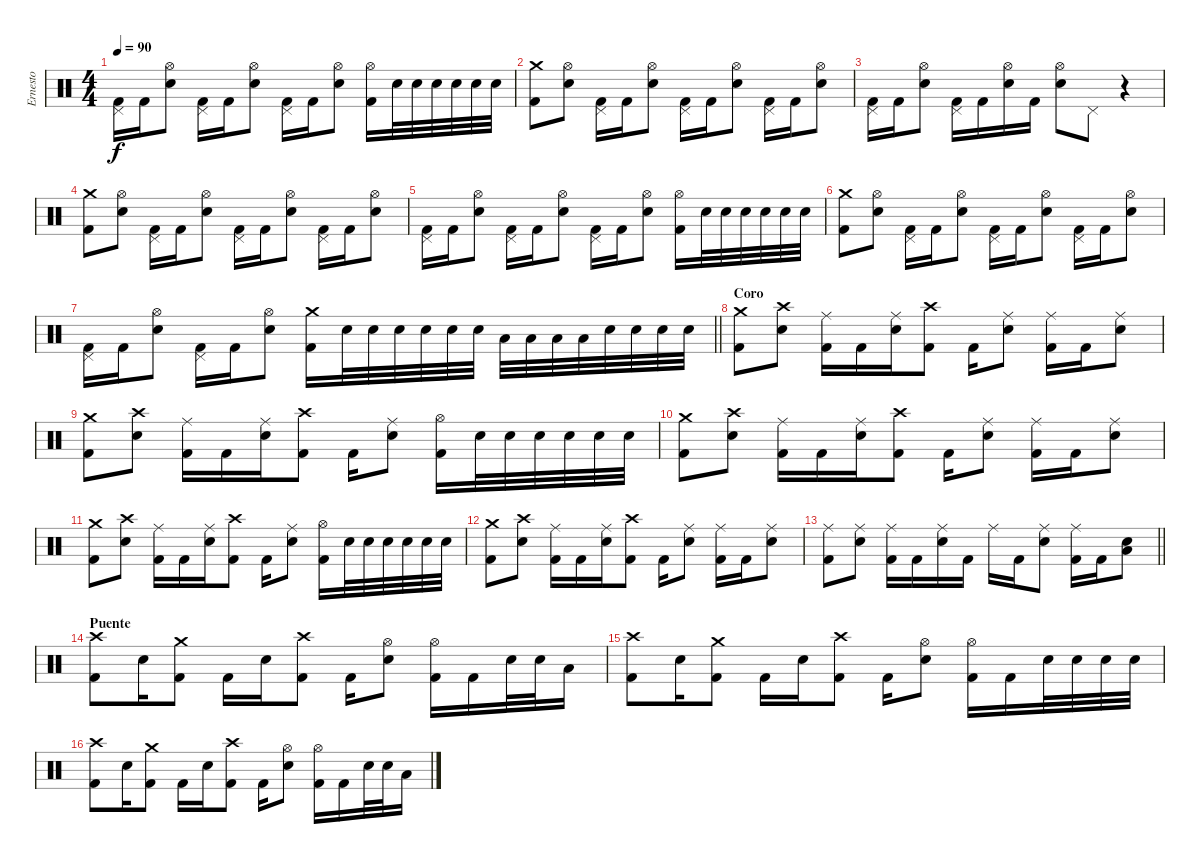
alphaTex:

\track ("Ernesto" "Ernesto") {instrument percussion}
\staff
\articulation defaults
\ts (4 4)
\tempo 90
\clef neutral
\ks c
("Pedal Hi-Hat (hit)" "Kick (hit) 2").16{dy f} "Kick (hit) 2".16 ("Hi-Hat (open)" "Electric Snare (hit)").8 ("Pedal Hi-Hat (hit)" "Kick (hit) 2").16 "Kick (hit) 2".16 ("Hi-Hat (open)" "Electric Snare (hit)").8 ("Pedal Hi-Hat (hit)" "Kick (hit) 2").16 "Kick (hit) 2".16 ("Hi-Hat (open)" "Electric Snare (hit)").8 ("Hi-Hat (open)" "Kick (hit) 2").16 "Electric Snare (hit)".32 "Electric Snare (hit)".32 "Electric Snare (hit)".32 "Electric Snare (hit)".32 "Electric Snare (hit)".32 "Electric Snare (hit)".32 |
("Crash medium (hit)" "Kick (hit) 2").8 ("Hi-Hat (open)" "Electric Snare (hit)").8 ("Pedal Hi-Hat (hit)" "Kick (hit) 2").16 "Kick (hit) 2".16 ("Hi-Hat (open)" "Electric Snare (hit)").8 ("Pedal Hi-Hat (hit)" "Kick (hit) 2").16 "Kick (hit) 2".16 ("Hi-Hat (open)" "Electric Snare (hit)").8 ("Pedal Hi-Hat (hit)" "Kick (hit) 2").16 "Kick (hit) 2".16 ("Hi-Hat (open)" "Electric Snare (hit)").8 |
("Pedal Hi-Hat (hit)" "Kick (hit) 2").16 "Kick (hit) 2".16 ("Hi-Hat (open)" "Electric Snare (hit)").8 ("Pedal Hi-Hat (hit)" "Kick (hit) 2").16 "Kick (hit) 2".16 ("Hi-Hat (open)" "Electric Snare (hit)").16 "Kick (hit) 2".16 ("Hi-Hat (open)" "Electric Snare (hit)").8 "Pedal Hi-Hat (hit)".8 r.4 |
("Crash medium (hit)" "Kick (hit) 2").8 ("Hi-Hat (open)" "Electric Snare (hit)").8 ("Pedal Hi-Hat (hit)" "Kick (hit) 2").16 "Kick (hit) 2".16 ("Hi-Hat (open)" "Electric Snare (hit)").8 ("Pedal Hi-Hat (hit)" "Kick (hit) 2").16 "Kick (hit) 2".16 ("Hi-Hat (open)" "Electric Snare (hit)").8 ("Pedal Hi-Hat (hit)" "Kick (hit) 2").16 "Kick (hit) 2".16 ("Hi-Hat (open)" "Electric Snare (hit)").8 |
("Pedal Hi-Hat (hit)" "Kick (hit) 2").16 "Kick (hit) 2".16 ("Hi-Hat (open)" "Electric Snare (hit)").8 ("Pedal Hi-Hat (hit)" "Kick (hit) 2").16 "Kick (hit) 2".16 ("Hi-Hat (open)" "Electric Snare (hit)").8 ("Pedal Hi-Hat (hit)" "Kick (hit) 2").16 "Kick (hit) 2".16 ("Hi-Hat (open)" "Electric Snare (hit)").8 ("Hi-Hat (open)" "Kick (hit) 2").16 "Electric Snare (hit)".32 "Electric Snare (hit)".32 "Electric Snare (hit)".32 "Electric Snare (hit)".32 "Electric Snare (hit)".32 "Electric Snare (hit)".32 |
("Crash medium (hit)" "Kick (hit) 2").8 ("Hi-Hat (open)" "Electric Snare (hit)").8 ("Pedal Hi-Hat (hit)" "Kick (hit) 2").16 "Kick (hit) 2".16 ("Hi-Hat (open)" "Electric Snare (hit)").8 ("Pedal Hi-Hat (hit)" "Kick (hit) 2").16 "Kick (hit) 2".16 ("Hi-Hat (open)" "Electric Snare (hit)").8 ("Pedal Hi-Hat (hit)" "Kick (hit) 2").16 "Kick (hit) 2".16 ("Hi-Hat (open)" "Electric Snare (hit)").8 |
\barLineRight lightlight
("Pedal Hi-Hat (hit)" "Kick (hit) 2").16 "Kick (hit) 2".16 ("Hi-Hat (open)" "Electric Snare (hit)").8 ("Pedal Hi-Hat (hit)" "Kick (hit) 2").16 "Kick (hit) 2".16 ("Hi-Hat (open)" "Electric Snare (hit)").8 ("Crash medium (hit)" "Kick (hit) 2").16 "Electric Snare (hit)".32 "Electric Snare (hit)".32 "Electric Snare (hit)".32 "Electric Snare (hit)".32 "Electric Snare (hit)".32 "Electric Snare (hit)".32 "Low Tom (hit)".32 "Low Tom (hit)".32 "Low Tom (hit)".32 "Low Tom (hit)".32 "Electric Snare (hit)".32 "Electric Snare (hit)".32 "Electric Snare (hit)".32 "Electric Snare (hit)".32 |
\section ("" "Coro")
("Crash medium (hit)" "Kick (hit) 2").8 ("Crash high (hit)" "Electric Snare (hit)").8 ("Ride (middle)" "Kick (hit) 2").16 "Kick (hit) 2".16 ("Ride (middle)" "Electric Snare (hit)").16 ("Crash high (hit)" "Kick (hit) 2").8 "Kick (hit) 2".16 ("Ride (middle)" "Electric Snare (hit)").8 ("Ride (middle)" "Kick (hit) 2").16 "Kick (hit) 2".16 ("Ride (middle)" "Electric Snare (hit)").8 |
("Crash medium (hit)" "Kick (hit) 2").8 ("Crash high (hit)" "Electric Snare (hit)").8 ("Ride (middle)" "Kick (hit) 2").16 "Kick (hit) 2".16 ("Ride (middle)" "Electric Snare (hit)").16 ("Crash high (hit)" "Kick (hit) 2").8 "Kick (hit) 2".16 ("Ride (middle)" "Electric Snare (hit)").8 ("Hi-Hat (open)" "Kick (hit) 2").16 "Electric Snare (hit)".32 "Electric Snare (hit)".32 "Electric Snare (hit)".32 "Electric Snare (hit)".32 "Electric Snare (hit)".32 "Electric Snare (hit)".32 |
("Crash medium (hit)" "Kick (hit) 2").8 ("Crash high (hit)" "Electric Snare (hit)").8 ("Ride (middle)" "Kick (hit) 2").16 "Kick (hit) 2".16 ("Ride (middle)" "Electric Snare (hit)").16 ("Crash high (hit)" "Kick (hit) 2").8 "Kick (hit) 2".16 ("Ride (middle)" "Electric Snare (hit)").8 ("Ride (middle)" "Kick (hit) 2").16 "Kick (hit) 2".16 ("Ride (middle)" "Electric Snare (hit)").8 |
("Crash medium (hit)" "Kick (hit) 2").8 ("Crash high (hit)" "Electric Snare (hit)").8 ("Ride (middle)" "Kick (hit) 2").16 "Kick (hit) 2".16 ("Ride (middle)" "Electric Snare (hit)").16 ("Crash high (hit)" "Kick (hit) 2").8 "Kick (hit) 2".16 ("Ride (middle)" "Electric Snare (hit)").8 ("Hi-Hat (open)" "Kick (hit) 2").16 "Electric Snare (hit)".32 "Electric Snare (hit)".32 "Electric Snare (hit)".32 "Electric Snare (hit)".32 "Electric Snare (hit)".32 "Electric Snare (hit)".32 |
("Crash medium (hit)" "Kick (hit) 2").8 ("Crash high (hit)" "Electric Snare (hit)").8 ("Ride (middle)" "Kick (hit) 2").16 "Kick (hit) 2".16 ("Ride (middle)" "Electric Snare (hit)").16 ("Crash high (hit)" "Kick (hit) 2").8 "Kick (hit) 2".16 ("Ride (middle)" "Electric Snare (hit)").8 ("Ride (middle)" "Kick (hit) 2").16 "Kick (hit) 2".16 ("Ride (middle)" "Electric Snare (hit)").8 |
\barLineRight lightlight
("Ride (middle)" "Kick (hit) 2").8 ("Ride (middle)" "Electric Snare (hit)").8 ("Ride (middle)" "Kick (hit) 2").16 "Kick (hit) 2".16 ("Ride (middle)" "Electric Snare (hit)").16 "Kick (hit) 2".16 "Ride (middle)".16 "Kick (hit) 2".16 ("Ride (middle)" "Electric Snare (hit)").8 ("Ride (middle)" "Kick (hit) 2").16 "Kick (hit) 2".16 ("Electric Snare (hit)" "Low Floor Tom (hit)").8 |
\section ("" "Puente")
("Crash high (hit)" "Kick (hit) 2").8 "Electric Snare (hit)".16 ("Crash medium (hit)" "Kick (hit) 2").8 "Kick (hit) 2".16 "Electric Snare (hit)".16 ("Crash high (hit)" "Kick (hit) 2").8 "Kick (hit) 2".16 ("Hi-Hat (open)" "Electric Snare (hit)").8 ("Hi-Hat (open)" "Kick (hit) 2").16 "Kick (hit) 2".16 "Electric Snare (hit)".32 "Electric Snare (hit)".32 "Low Tom (hit)".16 |
("Crash high (hit)" "Kick (hit) 2").8 "Electric Snare (hit)".16 ("Crash medium (hit)" "Kick (hit) 2").8 "Kick (hit) 2".16 "Electric Snare (hit)".16 ("Crash high (hit)" "Kick (hit) 2").8 "Kick (hit) 2".16 ("Hi-Hat (open)" "Electric Snare (hit)").8 ("Hi-Hat (open)" "Kick (hit) 2").16 "Kick (hit) 2".16 "Electric Snare (hit)".32 "Electric Snare (hit)".32 "Electric Snare (hit)".32 "Electric Snare (hit)".32 |
("Crash high (hit)" "Kick (hit) 2").8 "Electric Snare (hit)".16 ("Crash medium (hit)" "Kick (hit) 2").8 "Kick (hit) 2".16 "Electric Snare (hit)".16 ("Crash high (hit)" "Kick (hit) 2").8 "Kick (hit) 2".16 ("Hi-Hat (open)" "Electric Snare (hit)").8 ("Hi-Hat (open)" "Kick (hit) 2").16 "Kick (hit) 2".16 "Electric Snare (hit)".32 "Electric Snare (hit)".32 "Low Tom (hit)".16
